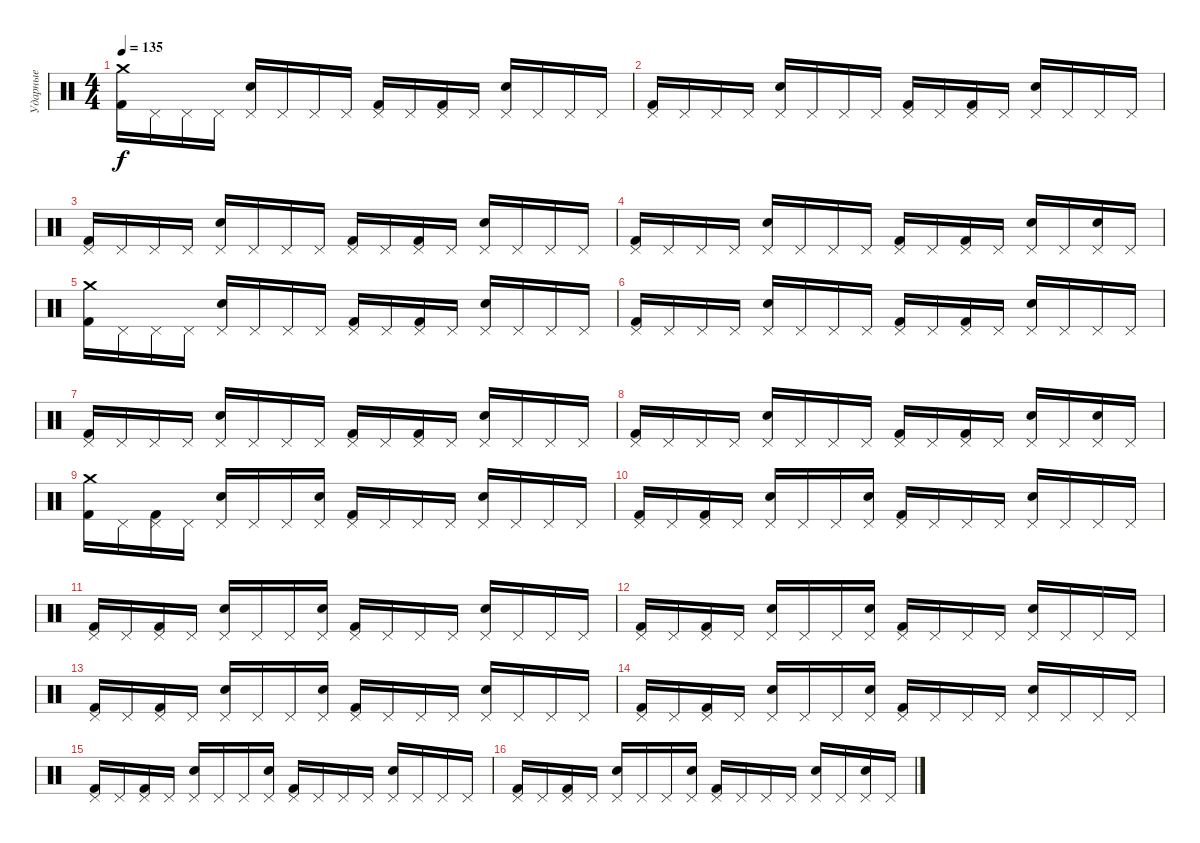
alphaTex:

\track ("Ударные" "Ударные") {instrument percussion}
\staff {score}
\articulation defaults
\ts (4 4)
\tempo 135
\clef neutral
\ks c
("Crash medium (hit)" "Kick (hit) 2").16{dy f} "Pedal Hi-Hat (hit)".16 "Pedal Hi-Hat (hit)".16 "Pedal Hi-Hat (hit)".16 ("Pedal Hi-Hat (hit)" "Snare (hit) 2").16 "Pedal Hi-Hat (hit)".16 "Pedal Hi-Hat (hit)".16 "Pedal Hi-Hat (hit)".16 ("Pedal Hi-Hat (hit)" "Kick (hit) 2").16 "Pedal Hi-Hat (hit)".16 ("Pedal Hi-Hat (hit)" "Kick (hit) 2").16 "Pedal Hi-Hat (hit)".16 ("Pedal Hi-Hat (hit)" "Snare (hit) 2").16 "Pedal Hi-Hat (hit)".16 "Pedal Hi-Hat (hit)".16 "Pedal Hi-Hat (hit)".16 |
("Pedal Hi-Hat (hit)" "Kick (hit) 2").16 "Pedal Hi-Hat (hit)".16 "Pedal Hi-Hat (hit)".16 "Pedal Hi-Hat (hit)".16 ("Pedal Hi-Hat (hit)" "Snare (hit) 2").16 "Pedal Hi-Hat (hit)".16 "Pedal Hi-Hat (hit)".16 "Pedal Hi-Hat (hit)".16 ("Pedal Hi-Hat (hit)" "Kick (hit) 2").16 "Pedal Hi-Hat (hit)".16 ("Pedal Hi-Hat (hit)" "Kick (hit) 2").16 "Pedal Hi-Hat (hit)".16 ("Pedal Hi-Hat (hit)" "Snare (hit) 2").16 "Pedal Hi-Hat (hit)".16 "Pedal Hi-Hat (hit)".16 "Pedal Hi-Hat (hit)".16 |
("Pedal Hi-Hat (hit)" "Kick (hit) 2").16 "Pedal Hi-Hat (hit)".16 "Pedal Hi-Hat (hit)".16 "Pedal Hi-Hat (hit)".16 ("Pedal Hi-Hat (hit)" "Snare (hit) 2").16 "Pedal Hi-Hat (hit)".16 "Pedal Hi-Hat (hit)".16 "Pedal Hi-Hat (hit)".16 ("Pedal Hi-Hat (hit)" "Kick (hit) 2").16 "Pedal Hi-Hat (hit)".16 ("Pedal Hi-Hat (hit)" "Kick (hit) 2").16 "Pedal Hi-Hat (hit)".16 ("Pedal Hi-Hat (hit)" "Snare (hit) 2").16 "Pedal Hi-Hat (hit)".16 "Pedal Hi-Hat (hit)".16 "Pedal Hi-Hat (hit)".16 |
("Pedal Hi-Hat (hit)" "Kick (hit) 2").16 "Pedal Hi-Hat (hit)".16 "Pedal Hi-Hat (hit)".16 "Pedal Hi-Hat (hit)".16 ("Pedal Hi-Hat (hit)" "Snare (hit) 2").16 "Pedal Hi-Hat (hit)".16 "Pedal Hi-Hat (hit)".16 "Pedal Hi-Hat (hit)".16 ("Pedal Hi-Hat (hit)" "Kick (hit) 2").16 "Pedal Hi-Hat (hit)".16 ("Pedal Hi-Hat (hit)" "Kick (hit) 2").16 "Pedal Hi-Hat (hit)".16 ("Pedal Hi-Hat (hit)" "Snare (hit) 2").16 "Pedal Hi-Hat (hit)".16 ("Pedal Hi-Hat (hit)" "Snare (hit) 2").16 "Pedal Hi-Hat (hit)".16 |
("Crash medium (hit)" "Kick (hit) 2").16 "Pedal Hi-Hat (hit)".16 "Pedal Hi-Hat (hit)".16 "Pedal Hi-Hat (hit)".16 ("Pedal Hi-Hat (hit)" "Snare (hit) 2").16 "Pedal Hi-Hat (hit)".16 "Pedal Hi-Hat (hit)".16 "Pedal Hi-Hat (hit)".16 ("Pedal Hi-Hat (hit)" "Kick (hit) 2").16 "Pedal Hi-Hat (hit)".16 ("Pedal Hi-Hat (hit)" "Kick (hit) 2").16 "Pedal Hi-Hat (hit)".16 ("Pedal Hi-Hat (hit)" "Snare (hit) 2").16 "Pedal Hi-Hat (hit)".16 "Pedal Hi-Hat (hit)".16 "Pedal Hi-Hat (hit)".16 |
("Pedal Hi-Hat (hit)" "Kick (hit) 2").16 "Pedal Hi-Hat (hit)".16 "Pedal Hi-Hat (hit)".16 "Pedal Hi-Hat (hit)".16 ("Pedal Hi-Hat (hit)" "Snare (hit) 2").16 "Pedal Hi-Hat (hit)".16 "Pedal Hi-Hat (hit)".16 "Pedal Hi-Hat (hit)".16 ("Pedal Hi-Hat (hit)" "Kick (hit) 2").16 "Pedal Hi-Hat (hit)".16 ("Pedal Hi-Hat (hit)" "Kick (hit) 2").16 "Pedal Hi-Hat (hit)".16 ("Pedal Hi-Hat (hit)" "Snare (hit) 2").16 "Pedal Hi-Hat (hit)".16 "Pedal Hi-Hat (hit)".16 "Pedal Hi-Hat (hit)".16 |
("Pedal Hi-Hat (hit)" "Kick (hit) 2").16 "Pedal Hi-Hat (hit)".16 "Pedal Hi-Hat (hit)".16 "Pedal Hi-Hat (hit)".16 ("Pedal Hi-Hat (hit)" "Snare (hit) 2").16 "Pedal Hi-Hat (hit)".16 "Pedal Hi-Hat (hit)".16 "Pedal Hi-Hat (hit)".16 ("Pedal Hi-Hat (hit)" "Kick (hit) 2").16 "Pedal Hi-Hat (hit)".16 ("Pedal Hi-Hat (hit)" "Kick (hit) 2").16 "Pedal Hi-Hat (hit)".16 ("Pedal Hi-Hat (hit)" "Snare (hit) 2").16 "Pedal Hi-Hat (hit)".16 "Pedal Hi-Hat (hit)".16 "Pedal Hi-Hat (hit)".16 |
("Pedal Hi-Hat (hit)" "Kick (hit) 2").16 "Pedal Hi-Hat (hit)".16 "Pedal Hi-Hat (hit)".16 "Pedal Hi-Hat (hit)".16 ("Pedal Hi-Hat (hit)" "Snare (hit) 2").16 "Pedal Hi-Hat (hit)".16 "Pedal Hi-Hat (hit)".16 "Pedal Hi-Hat (hit)".16 ("Pedal Hi-Hat (hit)" "Kick (hit) 2").16 "Pedal Hi-Hat (hit)".16 ("Pedal Hi-Hat (hit)" "Kick (hit) 2").16 "Pedal Hi-Hat (hit)".16 ("Pedal Hi-Hat (hit)" "Snare (hit) 2").16 "Pedal Hi-Hat (hit)".16 ("Pedal Hi-Hat (hit)" "Snare (hit) 2").16 "Pedal Hi-Hat (hit)".16 |
("Crash medium (hit)" "Kick (hit) 2").16 "Pedal Hi-Hat (hit)".16 ("Pedal Hi-Hat (hit)" "Kick (hit) 2").16 "Pedal Hi-Hat (hit)".16 ("Pedal Hi-Hat (hit)" "Snare (hit) 2").16 "Pedal Hi-Hat (hit)".16 "Pedal Hi-Hat (hit)".16 ("Pedal Hi-Hat (hit)" "Snare (hit) 2").16 ("Pedal Hi-Hat (hit)" "Kick (hit) 2").16 "Pedal Hi-Hat (hit)".16 "Pedal Hi-Hat (hit)".16 "Pedal Hi-Hat (hit)".16 ("Pedal Hi-Hat (hit)" "Snare (hit) 2").16 "Pedal Hi-Hat (hit)".16 "Pedal Hi-Hat (hit)".16 "Pedal Hi-Hat (hit)".16 |
("Pedal Hi-Hat (hit)" "Kick (hit) 2").16 "Pedal Hi-Hat (hit)".16 ("Pedal Hi-Hat (hit)" "Kick (hit) 2").16 "Pedal Hi-Hat (hit)".16 ("Pedal Hi-Hat (hit)" "Snare (hit) 2").16 "Pedal Hi-Hat (hit)".16 "Pedal Hi-Hat (hit)".16 ("Pedal Hi-Hat (hit)" "Snare (hit) 2").16 ("Pedal Hi-Hat (hit)" "Kick (hit) 2").16 "Pedal Hi-Hat (hit)".16 "Pedal Hi-Hat (hit)".16 "Pedal Hi-Hat (hit)".16 ("Pedal Hi-Hat (hit)" "Snare (hit) 2").16 "Pedal Hi-Hat (hit)".16 "Pedal Hi-Hat (hit)".16 "Pedal Hi-Hat (hit)".16 |
("Pedal Hi-Hat (hit)" "Kick (hit) 2").16 "Pedal Hi-Hat (hit)".16 ("Pedal Hi-Hat (hit)" "Kick (hit) 2").16 "Pedal Hi-Hat (hit)".16 ("Pedal Hi-Hat (hit)" "Snare (hit) 2").16 "Pedal Hi-Hat (hit)".16 "Pedal Hi-Hat (hit)".16 ("Pedal Hi-Hat (hit)" "Snare (hit) 2").16 ("Pedal Hi-Hat (hit)" "Kick (hit) 2").16 "Pedal Hi-Hat (hit)".16 "Pedal Hi-Hat (hit)".16 "Pedal Hi-Hat (hit)".16 ("Pedal Hi-Hat (hit)" "Snare (hit) 2").16 "Pedal Hi-Hat (hit)".16 "Pedal Hi-Hat (hit)".16 "Pedal Hi-Hat (hit)".16 |
("Pedal Hi-Hat (hit)" "Kick (hit) 2").16 "Pedal Hi-Hat (hit)".16 ("Pedal Hi-Hat (hit)" "Kick (hit) 2").16 "Pedal Hi-Hat (hit)".16 ("Pedal Hi-Hat (hit)" "Snare (hit) 2").16 "Pedal Hi-Hat (hit)".16 "Pedal Hi-Hat (hit)".16 ("Pedal Hi-Hat (hit)" "Snare (hit) 2").16 ("Pedal Hi-Hat (hit)" "Kick (hit) 2").16 "Pedal Hi-Hat (hit)".16 "Pedal Hi-Hat (hit)".16 "Pedal Hi-Hat (hit)".16 ("Pedal Hi-Hat (hit)" "Snare (hit) 2").16 "Pedal Hi-Hat (hit)".16 "Pedal Hi-Hat (hit)".16 "Pedal Hi-Hat (hit)".16 |
("Pedal Hi-Hat (hit)" "Kick (hit) 2").16 "Pedal Hi-Hat (hit)".16 ("Pedal Hi-Hat (hit)" "Kick (hit) 2").16 "Pedal Hi-Hat (hit)".16 ("Pedal Hi-Hat (hit)" "Snare (hit) 2").16 "Pedal Hi-Hat (hit)".16 "Pedal Hi-Hat (hit)".16 ("Pedal Hi-Hat (hit)" "Snare (hit) 2").16 ("Pedal Hi-Hat (hit)" "Kick (hit) 2").16 "Pedal Hi-Hat (hit)".16 "Pedal Hi-Hat (hit)".16 "Pedal Hi-Hat (hit)".16 ("Pedal Hi-Hat (hit)" "Snare (hit) 2").16 "Pedal Hi-Hat (hit)".16 "Pedal Hi-Hat (hit)".16 "Pedal Hi-Hat (hit)".16 |
("Pedal Hi-Hat (hit)" "Kick (hit) 2").16 "Pedal Hi-Hat (hit)".16 ("Pedal Hi-Hat (hit)" "Kick (hit) 2").16 "Pedal Hi-Hat (hit)".16 ("Pedal Hi-Hat (hit)" "Snare (hit) 2").16 "Pedal Hi-Hat (hit)".16 "Pedal Hi-Hat (hit)".16 ("Pedal Hi-Hat (hit)" "Snare (hit) 2").16 ("Pedal Hi-Hat (hit)" "Kick (hit) 2").16 "Pedal Hi-Hat (hit)".16 "Pedal Hi-Hat (hit)".16 "Pedal Hi-Hat (hit)".16 ("Pedal Hi-Hat (hit)" "Snare (hit) 2").16 "Pedal Hi-Hat (hit)".16 "Pedal Hi-Hat (hit)".16 "Pedal Hi-Hat (hit)".16 |
("Pedal Hi-Hat (hit)" "Kick (hit) 2").16 "Pedal Hi-Hat (hit)".16 ("Pedal Hi-Hat (hit)" "Kick (hit) 2").16 "Pedal Hi-Hat (hit)".16 ("Pedal Hi-Hat (hit)" "Snare (hit) 2").16 "Pedal Hi-Hat (hit)".16 "Pedal Hi-Hat (hit)".16 ("Pedal Hi-Hat (hit)" "Snare (hit) 2").16 ("Pedal Hi-Hat (hit)" "Kick (hit) 2").16 "Pedal Hi-Hat (hit)".16 "Pedal Hi-Hat (hit)".16 "Pedal Hi-Hat (hit)".16 ("Pedal Hi-Hat (hit)" "Snare (hit) 2").16 "Pedal Hi-Hat (hit)".16 "Pedal Hi-Hat (hit)".16 "Pedal Hi-Hat (hit)".16 |
("Pedal Hi-Hat (hit)" "Kick (hit) 2").16 "Pedal Hi-Hat (hit)".16 ("Pedal Hi-Hat (hit)" "Kick (hit) 2").16 "Pedal Hi-Hat (hit)".16 ("Pedal Hi-Hat (hit)" "Snare (hit) 2").16 "Pedal Hi-Hat (hit)".16 "Pedal Hi-Hat (hit)".16 ("Pedal Hi-Hat (hit)" "Snare (hit) 2").16 ("Pedal Hi-Hat (hit)" "Kick (hit) 2").16 "Pedal Hi-Hat (hit)".16 "Pedal Hi-Hat (hit)".16 "Pedal Hi-Hat (hit)".16 ("Pedal Hi-Hat (hit)" "Snare (hit) 2").16 "Pedal Hi-Hat (hit)".16 ("Pedal Hi-Hat (hit)" "Snare (hit) 2").16 "Pedal Hi-Hat (hit)".16
